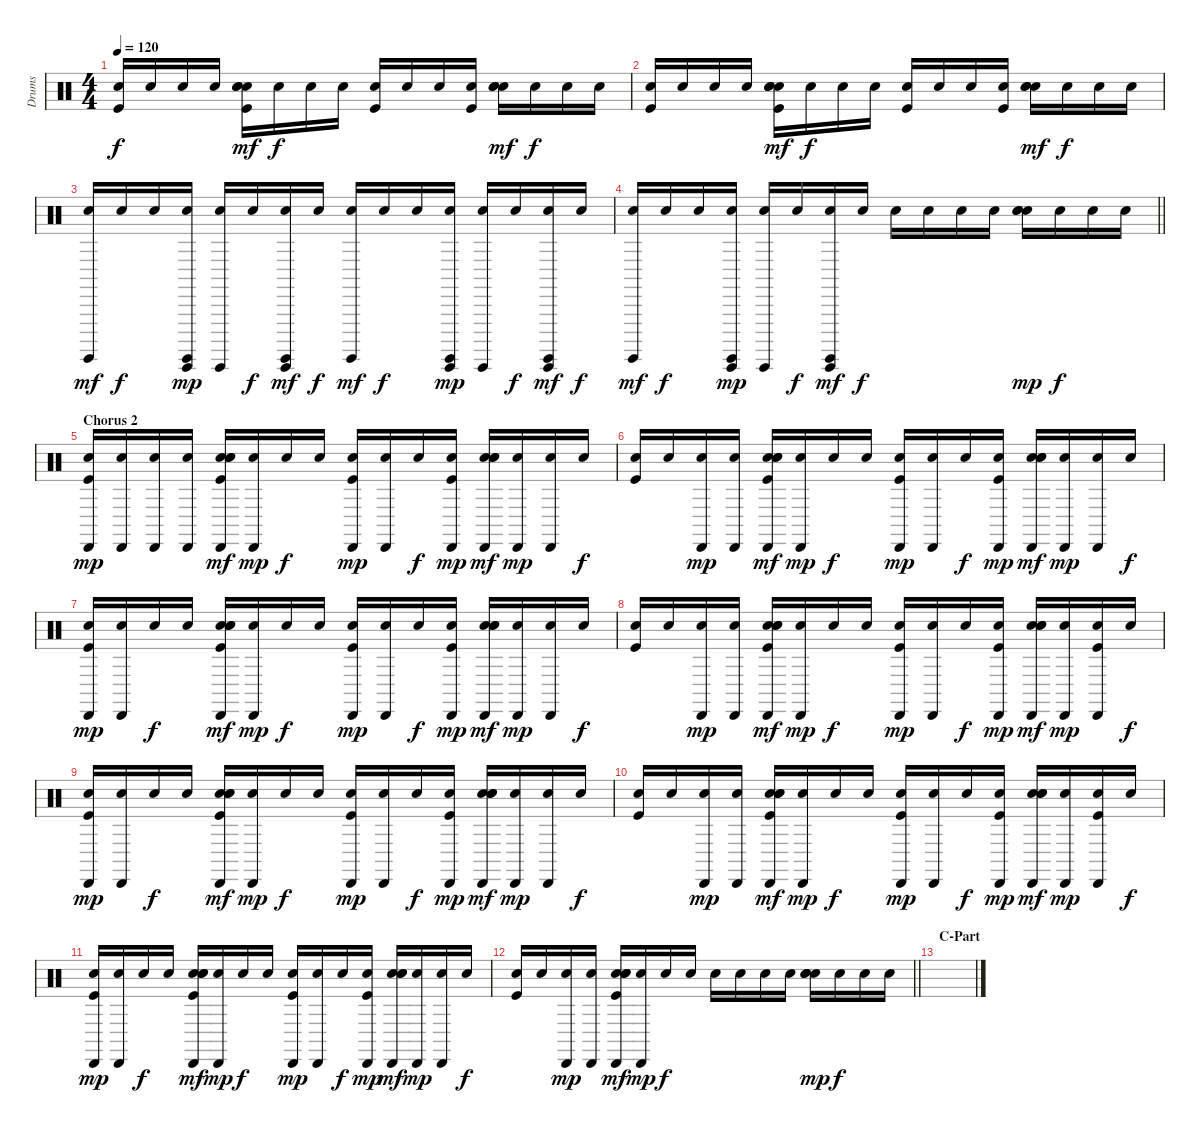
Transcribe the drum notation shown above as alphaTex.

\track ("Drums" "Drums") {instrument percussion}
\staff {score}
\articulation defaults
\ts (4 4)
\tempo 120
\clef neutral
\ks c
("Snare (hit)" "Kick (hit)").16{dy f} "Snare (hit)".16 "Snare (hit)".16 "Snare (hit)".16 ("Snare (hit)" "Hand Clap (hit)" "Electric Snare (hit)" "Kick (hit)").16{dy mf} "Snare (hit)".16{dy f} "Snare (hit)".16 "Snare (hit)".16 ("Snare (hit)" "Kick (hit)").16 "Snare (hit)".16 "Snare (hit)".16 ("Snare (hit)" "Kick (hit)").16 ("Snare (hit)" "Hand Clap (hit)" "Electric Snare (hit)").16{dy mf} "Snare (hit)".16{dy f} "Snare (hit)".16 "Snare (hit)".16 |
("Snare (hit)" "Kick (hit)").16 "Snare (hit)".16 "Snare (hit)".16 "Snare (hit)".16 ("Snare (hit)" "Hand Clap (hit)" "Electric Snare (hit)" "Kick (hit)").16{dy mf} "Snare (hit)".16{dy f} "Snare (hit)".16 "Snare (hit)".16 ("Snare (hit)" "Kick (hit)").16 "Snare (hit)".16 "Snare (hit)".16 ("Snare (hit)" "Kick (hit)").16 ("Snare (hit)" "Hand Clap (hit)" "Electric Snare (hit)").16{dy mf} "Snare (hit)".16{dy f} "Snare (hit)".16 "Snare (hit)".16 |
("Snare (hit)" "Surdo (hit)").16{dy mf} "Snare (hit)".16{dy f} "Snare (hit)".16 ("Snare (hit)" "Guiro (hit)" "Surdo (hit)").16{dy mp} ("Snare (hit)" "Guiro (hit)").16 "Snare (hit)".16{dy f} ("Snare (hit)" "Guiro (hit)" "Surdo (hit)").16{dy mf} "Snare (hit)".16{dy f} ("Snare (hit)" "Surdo (hit)").16{dy mf} "Snare (hit)".16{dy f} "Snare (hit)".16 ("Snare (hit)" "Guiro (hit)" "Surdo (hit)").16{dy mp} ("Snare (hit)" "Guiro (hit)").16 "Snare (hit)".16{dy f} ("Snare (hit)" "Guiro (hit)" "Surdo (hit)").16{dy mf} "Snare (hit)".16{dy f} |
\barLineRight lightlight
("Snare (hit)" "Surdo (hit)").16{dy mf} "Snare (hit)".16{dy f} "Snare (hit)".16 ("Snare (hit)" "Guiro (hit)" "Surdo (hit)").16{dy mp} ("Snare (hit)" "Guiro (hit)").16 "Snare (hit)".16{dy f} ("Snare (hit)" "Guiro (hit)" "Surdo (hit)").16{dy mf} "Snare (hit)".16{dy f} "Snare (hit)".16 "Snare (hit)".16 "Snare (hit)".16 "Snare (hit)".16 ("Snare (hit)" "Hand Clap (hit)" "Electric Snare (hit)").16{dy mp} "Snare (hit)".16{dy f} "Snare (hit)".16 "Snare (hit)".16 |
\section ("" "Chorus 2")
("Snare (hit)" "Cabasa (hit)" "Kick (hit)").16{dy mp} ("Snare (hit)" "Cabasa (hit)").16 ("Snare (hit)" "Cabasa (hit)").16 ("Snare (hit)" "Cabasa (hit)").16 ("Snare (hit)" "Cabasa (hit)" "Hand Clap (hit)" "Electric Snare (hit)" "Kick (hit)").16{dy mf} ("Snare (hit)" "Cabasa (hit)").16{dy mp} "Snare (hit)".16{dy f} "Snare (hit)".16 ("Snare (hit)" "Cabasa (hit)" "Kick (hit)").16{dy mp} ("Snare (hit)" "Cabasa (hit)").16 "Snare (hit)".16{dy f} ("Snare (hit)" "Cabasa (hit)" "Kick (hit)").16{dy mp} ("Snare (hit)" "Cabasa (hit)" "Hand Clap (hit)" "Electric Snare (hit)").16{dy mf} ("Snare (hit)" "Cabasa (hit)").16{dy mp} ("Snare (hit)" "Cabasa (hit)").16 "Snare (hit)".16{dy f} |
("Snare (hit)" "Kick (hit)").16 "Snare (hit)".16 ("Snare (hit)" "Cabasa (hit)").16{dy mp} ("Snare (hit)" "Cabasa (hit)").16 ("Snare (hit)" "Cabasa (hit)" "Hand Clap (hit)" "Electric Snare (hit)" "Kick (hit)").16{dy mf} ("Snare (hit)" "Cabasa (hit)").16{dy mp} "Snare (hit)".16{dy f} "Snare (hit)".16 ("Snare (hit)" "Cabasa (hit)" "Kick (hit)").16{dy mp} ("Snare (hit)" "Cabasa (hit)").16 "Snare (hit)".16{dy f} ("Snare (hit)" "Cabasa (hit)" "Kick (hit)").16{dy mp} ("Snare (hit)" "Cabasa (hit)" "Hand Clap (hit)" "Electric Snare (hit)").16{dy mf} ("Snare (hit)" "Cabasa (hit)").16{dy mp} ("Snare (hit)" "Cabasa (hit)").16 "Snare (hit)".16{dy f} |
("Snare (hit)" "Cabasa (hit)" "Kick (hit)").16{dy mp} ("Snare (hit)" "Cabasa (hit)").16 "Snare (hit)".16{dy f} "Snare (hit)".16 ("Snare (hit)" "Cabasa (hit)" "Hand Clap (hit)" "Electric Snare (hit)" "Kick (hit)").16{dy mf} ("Snare (hit)" "Cabasa (hit)").16{dy mp} "Snare (hit)".16{dy f} "Snare (hit)".16 ("Snare (hit)" "Cabasa (hit)" "Kick (hit)").16{dy mp} ("Snare (hit)" "Cabasa (hit)").16 "Snare (hit)".16{dy f} ("Snare (hit)" "Cabasa (hit)" "Kick (hit)").16{dy mp} ("Snare (hit)" "Cabasa (hit)" "Hand Clap (hit)" "Electric Snare (hit)").16{dy mf} ("Snare (hit)" "Cabasa (hit)").16{dy mp} ("Snare (hit)" "Cabasa (hit)").16 "Snare (hit)".16{dy f} |
("Snare (hit)" "Kick (hit)").16 "Snare (hit)".16 ("Snare (hit)" "Cabasa (hit)").16{dy mp} ("Snare (hit)" "Cabasa (hit)").16 ("Snare (hit)" "Cabasa (hit)" "Hand Clap (hit)" "Electric Snare (hit)" "Kick (hit)").16{dy mf} ("Snare (hit)" "Cabasa (hit)").16{dy mp} "Snare (hit)".16{dy f} "Snare (hit)".16 ("Snare (hit)" "Cabasa (hit)" "Kick (hit)").16{dy mp} ("Snare (hit)" "Cabasa (hit)").16 "Snare (hit)".16{dy f} ("Snare (hit)" "Cabasa (hit)" "Kick (hit)").16{dy mp} ("Snare (hit)" "Cabasa (hit)" "Hand Clap (hit)" "Electric Snare (hit)").16{dy mf} ("Snare (hit)" "Cabasa (hit)").16{dy mp} ("Snare (hit)" "Cabasa (hit)" "Kick (hit)").16 "Snare (hit)".16{dy f} |
("Snare (hit)" "Cabasa (hit)" "Kick (hit)").16{dy mp} ("Snare (hit)" "Cabasa (hit)").16 "Snare (hit)".16{dy f} "Snare (hit)".16 ("Snare (hit)" "Cabasa (hit)" "Hand Clap (hit)" "Electric Snare (hit)" "Kick (hit)").16{dy mf} ("Snare (hit)" "Cabasa (hit)").16{dy mp} "Snare (hit)".16{dy f} "Snare (hit)".16 ("Snare (hit)" "Cabasa (hit)" "Kick (hit)").16{dy mp} ("Snare (hit)" "Cabasa (hit)").16 "Snare (hit)".16{dy f} ("Snare (hit)" "Cabasa (hit)" "Kick (hit)").16{dy mp} ("Snare (hit)" "Cabasa (hit)" "Hand Clap (hit)" "Electric Snare (hit)").16{dy mf} ("Snare (hit)" "Cabasa (hit)").16{dy mp} ("Snare (hit)" "Cabasa (hit)").16 "Snare (hit)".16{dy f} |
("Snare (hit)" "Kick (hit)").16 "Snare (hit)".16 ("Snare (hit)" "Cabasa (hit)").16{dy mp} ("Snare (hit)" "Cabasa (hit)").16 ("Snare (hit)" "Cabasa (hit)" "Hand Clap (hit)" "Electric Snare (hit)" "Kick (hit)").16{dy mf} ("Snare (hit)" "Cabasa (hit)").16{dy mp} "Snare (hit)".16{dy f} "Snare (hit)".16 ("Snare (hit)" "Cabasa (hit)" "Kick (hit)").16{dy mp} ("Snare (hit)" "Cabasa (hit)").16 "Snare (hit)".16{dy f} ("Snare (hit)" "Cabasa (hit)" "Kick (hit)").16{dy mp} ("Snare (hit)" "Cabasa (hit)" "Hand Clap (hit)" "Electric Snare (hit)").16{dy mf} ("Snare (hit)" "Cabasa (hit)").16{dy mp} ("Snare (hit)" "Cabasa (hit)" "Kick (hit)").16 "Snare (hit)".16{dy f} |
("Snare (hit)" "Cabasa (hit)" "Kick (hit)").16{dy mp} ("Snare (hit)" "Cabasa (hit)").16 "Snare (hit)".16{dy f} "Snare (hit)".16 ("Snare (hit)" "Cabasa (hit)" "Hand Clap (hit)" "Electric Snare (hit)" "Kick (hit)").16{dy mf} ("Snare (hit)" "Cabasa (hit)").16{dy mp} "Snare (hit)".16{dy f} "Snare (hit)".16 ("Snare (hit)" "Cabasa (hit)" "Kick (hit)").16{dy mp} ("Snare (hit)" "Cabasa (hit)").16 "Snare (hit)".16{dy f} ("Snare (hit)" "Cabasa (hit)" "Kick (hit)").16{dy mp} ("Snare (hit)" "Cabasa (hit)" "Hand Clap (hit)" "Electric Snare (hit)").16{dy mf} ("Snare (hit)" "Cabasa (hit)").16{dy mp} ("Snare (hit)" "Cabasa (hit)").16 "Snare (hit)".16{dy f} |
\barLineRight lightlight
("Snare (hit)" "Kick (hit)").16 "Snare (hit)".16 ("Snare (hit)" "Cabasa (hit)").16{dy mp} ("Snare (hit)" "Cabasa (hit)").16 ("Snare (hit)" "Cabasa (hit)" "Hand Clap (hit)" "Electric Snare (hit)" "Kick (hit)").16{dy mf} ("Snare (hit)" "Cabasa (hit)").16{dy mp} "Snare (hit)".16{dy f} "Snare (hit)".16 "Snare (hit)".16 "Snare (hit)".16 "Snare (hit)".16 "Snare (hit)".16 ("Snare (hit)" "Hand Clap (hit)" "Electric Snare (hit)").16{dy mp} "Snare (hit)".16{dy f} "Snare (hit)".16 "Snare (hit)".16 |
\section ("" "C-Part")
